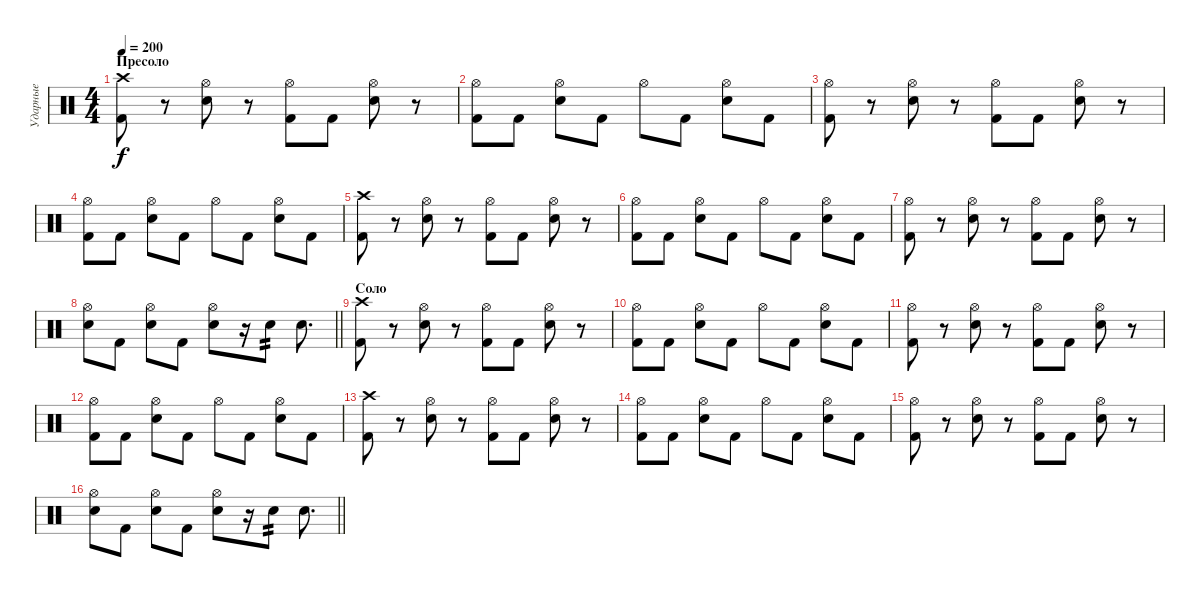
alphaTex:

\track ("Ударные" "Ударные") {instrument percussion}
\staff {score}
\articulation defaults
\ts (4 4)
\section ("" "Пресоло")
\tempo 200
\clef neutral
\ks c
("Crash high (hit)" "Kick (hit) 2").8{dy f} r.8 ("Hi-Hat (open)" "Electric Snare (hit)").8 r.8 ("Hi-Hat (open)" "Kick (hit) 2").8 "Kick (hit) 2".8 ("Hi-Hat (open)" "Electric Snare (hit)").8 r.8 |
("Hi-Hat (open)" "Kick (hit) 2").8 "Kick (hit) 2".8 ("Hi-Hat (open)" "Electric Snare (hit)").8 "Kick (hit) 2".8 "Hi-Hat (open)".8 "Kick (hit) 2".8 ("Hi-Hat (open)" "Electric Snare (hit)").8 "Kick (hit) 2".8 |
("Hi-Hat (open)" "Kick (hit) 2").8 r.8 ("Hi-Hat (open)" "Electric Snare (hit)").8 r.8 ("Hi-Hat (open)" "Kick (hit) 2").8 "Kick (hit) 2".8 ("Hi-Hat (open)" "Electric Snare (hit)").8 r.8 |
("Hi-Hat (open)" "Kick (hit) 2").8 "Kick (hit) 2".8 ("Hi-Hat (open)" "Electric Snare (hit)").8 "Kick (hit) 2".8 "Hi-Hat (open)".8 "Kick (hit) 2".8 ("Hi-Hat (open)" "Electric Snare (hit)").8 "Kick (hit) 2".8 |
("Crash high (hit)" "Kick (hit) 2").8 r.8 ("Hi-Hat (open)" "Electric Snare (hit)").8 r.8 ("Hi-Hat (open)" "Kick (hit) 2").8 "Kick (hit) 2".8 ("Hi-Hat (open)" "Electric Snare (hit)").8 r.8 |
("Hi-Hat (open)" "Kick (hit) 2").8 "Kick (hit) 2".8 ("Hi-Hat (open)" "Electric Snare (hit)").8 "Kick (hit) 2".8 "Hi-Hat (open)".8 "Kick (hit) 2".8 ("Hi-Hat (open)" "Electric Snare (hit)").8 "Kick (hit) 2".8 |
("Hi-Hat (open)" "Kick (hit) 2").8 r.8 ("Hi-Hat (open)" "Electric Snare (hit)").8 r.8 ("Hi-Hat (open)" "Kick (hit) 2").8 "Kick (hit) 2".8 ("Hi-Hat (open)" "Electric Snare (hit)").8 r.8 |
\barLineRight lightlight
("Hi-Hat (open)" "Electric Snare (hit)").8 "Kick (hit) 2".8 ("Hi-Hat (open)" "Electric Snare (hit)").8 "Kick (hit) 2".8 ("Hi-Hat (open)" "Electric Snare (hit)").8 r.16 "Electric Snare (hit)".8{tp 2} "Electric Snare (hit)".8{d} |
\section ("" "Соло")
("Crash high (hit)" "Kick (hit) 2").8 r.8 ("Hi-Hat (open)" "Electric Snare (hit)").8 r.8 ("Hi-Hat (open)" "Kick (hit) 2").8 "Kick (hit) 2".8 ("Hi-Hat (open)" "Electric Snare (hit)").8 r.8 |
("Hi-Hat (open)" "Kick (hit) 2").8 "Kick (hit) 2".8 ("Hi-Hat (open)" "Electric Snare (hit)").8 "Kick (hit) 2".8 "Hi-Hat (open)".8 "Kick (hit) 2".8 ("Hi-Hat (open)" "Electric Snare (hit)").8 "Kick (hit) 2".8 |
("Hi-Hat (open)" "Kick (hit) 2").8 r.8 ("Hi-Hat (open)" "Electric Snare (hit)").8 r.8 ("Hi-Hat (open)" "Kick (hit) 2").8 "Kick (hit) 2".8 ("Hi-Hat (open)" "Electric Snare (hit)").8 r.8 |
("Hi-Hat (open)" "Kick (hit) 2").8 "Kick (hit) 2".8 ("Hi-Hat (open)" "Electric Snare (hit)").8 "Kick (hit) 2".8 "Hi-Hat (open)".8 "Kick (hit) 2".8 ("Hi-Hat (open)" "Electric Snare (hit)").8 "Kick (hit) 2".8 |
("Crash high (hit)" "Kick (hit) 2").8 r.8 ("Hi-Hat (open)" "Electric Snare (hit)").8 r.8 ("Hi-Hat (open)" "Kick (hit) 2").8 "Kick (hit) 2".8 ("Hi-Hat (open)" "Electric Snare (hit)").8 r.8 |
("Hi-Hat (open)" "Kick (hit) 2").8 "Kick (hit) 2".8 ("Hi-Hat (open)" "Electric Snare (hit)").8 "Kick (hit) 2".8 "Hi-Hat (open)".8 "Kick (hit) 2".8 ("Hi-Hat (open)" "Electric Snare (hit)").8 "Kick (hit) 2".8 |
("Hi-Hat (open)" "Kick (hit) 2").8 r.8 ("Hi-Hat (open)" "Electric Snare (hit)").8 r.8 ("Hi-Hat (open)" "Kick (hit) 2").8 "Kick (hit) 2".8 ("Hi-Hat (open)" "Electric Snare (hit)").8 r.8 |
\barLineRight lightlight
("Hi-Hat (open)" "Electric Snare (hit)").8 "Kick (hit) 2".8 ("Hi-Hat (open)" "Electric Snare (hit)").8 "Kick (hit) 2".8 ("Hi-Hat (open)" "Electric Snare (hit)").8 r.16 "Electric Snare (hit)".8{tp 2} "Electric Snare (hit)".8{d}
